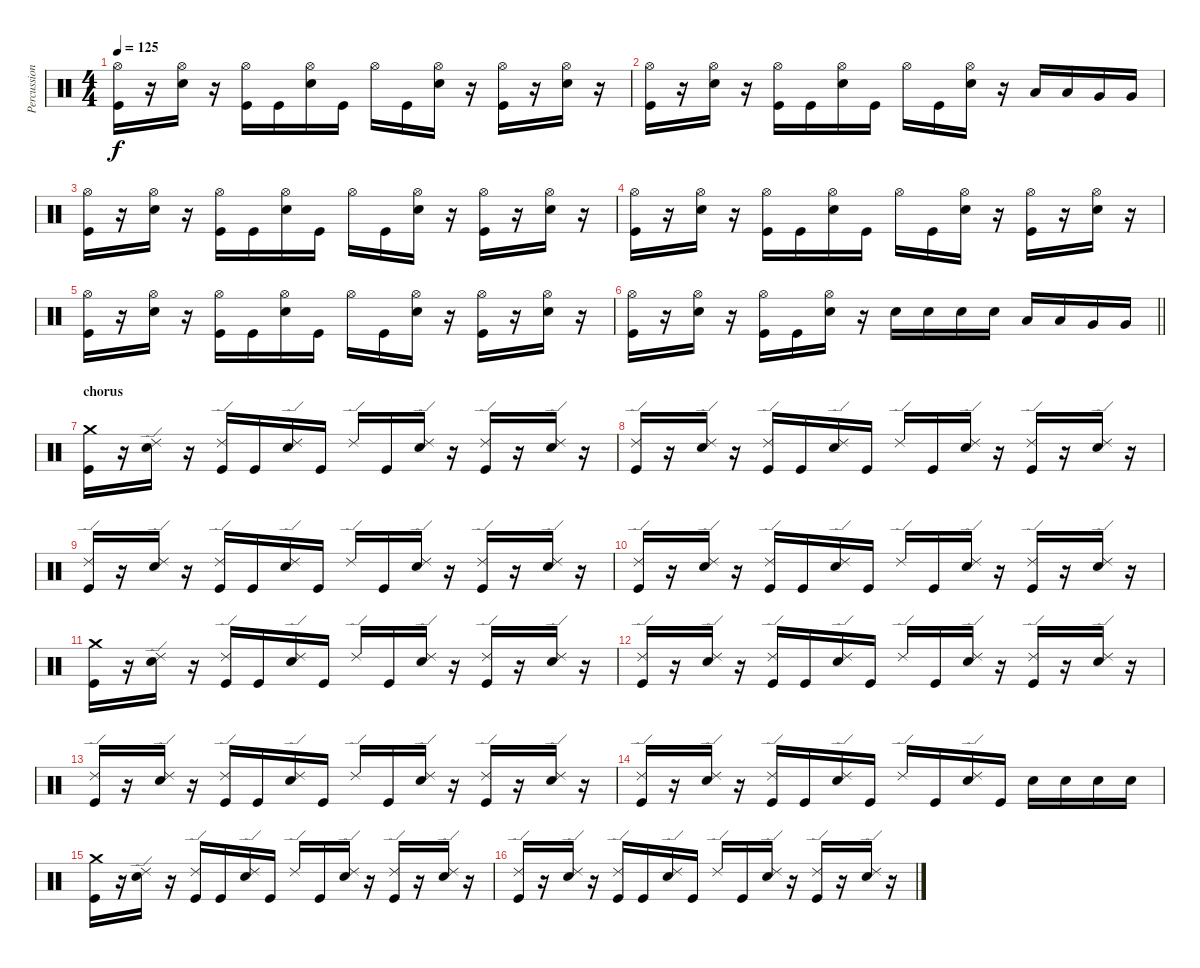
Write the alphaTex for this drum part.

\track ("Percussion" "Percussion") {instrument percussion}
\staff {score}
\articulation defaults
\ts (4 4)
\tempo 125
\clef neutral
\ks c
("Hi-Hat (open)" "Kick (hit)").16{dy f} r.16 ("Hi-Hat (open)" "Snare (hit) 2").16 r.16 ("Hi-Hat (open)" "Kick (hit)").16 "Kick (hit)".16 ("Hi-Hat (open)" "Snare (hit) 2").16 "Kick (hit)".16 "Hi-Hat (open)".16 "Kick (hit)".16 ("Hi-Hat (open)" "Snare (hit) 2").16 r.16 ("Hi-Hat (open)" "Kick (hit)").16 r.16 ("Hi-Hat (open)" "Snare (hit) 2").16 r.16 |
("Hi-Hat (open)" "Kick (hit)").16 r.16 ("Hi-Hat (open)" "Snare (hit) 2").16 r.16 ("Hi-Hat (open)" "Kick (hit)").16 "Kick (hit)".16 ("Hi-Hat (open)" "Snare (hit) 2").16 "Kick (hit)".16 "Hi-Hat (open)".16 "Kick (hit)".16 ("Hi-Hat (open)" "Snare (hit) 2").16 r.16 "Low Tom (hit)".16 "Low Tom (hit)".16 "Very Low Tom (hit)".16 "Very Low Tom (hit)".16 |
("Hi-Hat (open)" "Kick (hit)").16 r.16 ("Hi-Hat (open)" "Snare (hit) 2").16 r.16 ("Hi-Hat (open)" "Kick (hit)").16 "Kick (hit)".16 ("Hi-Hat (open)" "Snare (hit) 2").16 "Kick (hit)".16 "Hi-Hat (open)".16 "Kick (hit)".16 ("Hi-Hat (open)" "Snare (hit) 2").16 r.16 ("Hi-Hat (open)" "Kick (hit)").16 r.16 ("Hi-Hat (open)" "Snare (hit) 2").16 r.16 |
("Hi-Hat (open)" "Kick (hit)").16 r.16 ("Hi-Hat (open)" "Snare (hit) 2").16 r.16 ("Hi-Hat (open)" "Kick (hit)").16 "Kick (hit)".16 ("Hi-Hat (open)" "Snare (hit) 2").16 "Kick (hit)".16 "Hi-Hat (open)".16 "Kick (hit)".16 ("Hi-Hat (open)" "Snare (hit) 2").16 r.16 ("Hi-Hat (open)" "Kick (hit)").16 r.16 ("Hi-Hat (open)" "Snare (hit) 2").16 r.16 |
("Hi-Hat (open)" "Kick (hit)").16 r.16 ("Hi-Hat (open)" "Snare (hit) 2").16 r.16 ("Hi-Hat (open)" "Kick (hit)").16 "Kick (hit)".16 ("Hi-Hat (open)" "Snare (hit) 2").16 "Kick (hit)".16 "Hi-Hat (open)".16 "Kick (hit)".16 ("Hi-Hat (open)" "Snare (hit) 2").16 r.16 ("Hi-Hat (open)" "Kick (hit)").16 r.16 ("Hi-Hat (open)" "Snare (hit) 2").16 r.16 |
\barLineRight lightlight
("Hi-Hat (open)" "Kick (hit)").16 r.16 ("Hi-Hat (open)" "Snare (hit) 2").16 r.16 ("Hi-Hat (open)" "Kick (hit)").16 "Kick (hit)".16 ("Hi-Hat (open)" "Snare (hit) 2").16 r.16 "Snare (hit) 2".16 "Snare (hit) 2".16 "Snare (hit) 2".16 "Snare (hit) 2".16 "Low Tom (hit)".16 "Low Tom (hit)".16 "Very Low Tom (hit)".16 "Very Low Tom (hit)".16 |
\section ("" "chorus")
("Crash medium (hit)" "Kick (hit)").16 r.16 ("Ride (edge) 2" "Snare (hit) 2").16 r.16 ("Ride (edge) 2" "Kick (hit)").16 "Kick (hit)".16 ("Ride (edge) 2" "Snare (hit) 2").16 "Kick (hit)".16 "Ride (edge) 2".16 "Kick (hit)".16 ("Ride (edge) 2" "Snare (hit) 2").16 r.16 ("Ride (edge) 2" "Kick (hit)").16 r.16 ("Ride (edge) 2" "Snare (hit) 2").16 r.16 |
("Ride (edge) 2" "Kick (hit)").16 r.16 ("Ride (edge) 2" "Snare (hit) 2").16 r.16 ("Ride (edge) 2" "Kick (hit)").16 "Kick (hit)".16 ("Ride (edge) 2" "Snare (hit) 2").16 "Kick (hit)".16 "Ride (edge) 2".16 "Kick (hit)".16 ("Ride (edge) 2" "Snare (hit) 2").16 r.16 ("Ride (edge) 2" "Kick (hit)").16 r.16 ("Ride (edge) 2" "Snare (hit) 2").16 r.16 |
("Ride (edge) 2" "Kick (hit)").16 r.16 ("Ride (edge) 2" "Snare (hit) 2").16 r.16 ("Ride (edge) 2" "Kick (hit)").16 "Kick (hit)".16 ("Ride (edge) 2" "Snare (hit) 2").16 "Kick (hit)".16 "Ride (edge) 2".16 "Kick (hit)".16 ("Ride (edge) 2" "Snare (hit) 2").16 r.16 ("Ride (edge) 2" "Kick (hit)").16 r.16 ("Ride (edge) 2" "Snare (hit) 2").16 r.16 |
("Ride (edge) 2" "Kick (hit)").16 r.16 ("Ride (edge) 2" "Snare (hit) 2").16 r.16 ("Ride (edge) 2" "Kick (hit)").16 "Kick (hit)".16 ("Ride (edge) 2" "Snare (hit) 2").16 "Kick (hit)".16 "Ride (edge) 2".16 "Kick (hit)".16 ("Ride (edge) 2" "Snare (hit) 2").16 r.16 ("Ride (edge) 2" "Kick (hit)").16 r.16 ("Ride (edge) 2" "Snare (hit) 2").16 r.16 |
("Crash medium (hit)" "Kick (hit)").16 r.16 ("Ride (edge) 2" "Snare (hit) 2").16 r.16 ("Ride (edge) 2" "Kick (hit)").16 "Kick (hit)".16 ("Ride (edge) 2" "Snare (hit) 2").16 "Kick (hit)".16 "Ride (edge) 2".16 "Kick (hit)".16 ("Ride (edge) 2" "Snare (hit) 2").16 r.16 ("Ride (edge) 2" "Kick (hit)").16 r.16 ("Ride (edge) 2" "Snare (hit) 2").16 r.16 |
("Ride (edge) 2" "Kick (hit)").16 r.16 ("Ride (edge) 2" "Snare (hit) 2").16 r.16 ("Ride (edge) 2" "Kick (hit)").16 "Kick (hit)".16 ("Ride (edge) 2" "Snare (hit) 2").16 "Kick (hit)".16 "Ride (edge) 2".16 "Kick (hit)".16 ("Ride (edge) 2" "Snare (hit) 2").16 r.16 ("Ride (edge) 2" "Kick (hit)").16 r.16 ("Ride (edge) 2" "Snare (hit) 2").16 r.16 |
("Ride (edge) 2" "Kick (hit)").16 r.16 ("Ride (edge) 2" "Snare (hit) 2").16 r.16 ("Ride (edge) 2" "Kick (hit)").16 "Kick (hit)".16 ("Ride (edge) 2" "Snare (hit) 2").16 "Kick (hit)".16 "Ride (edge) 2".16 "Kick (hit)".16 ("Ride (edge) 2" "Snare (hit) 2").16 r.16 ("Ride (edge) 2" "Kick (hit)").16 r.16 ("Ride (edge) 2" "Snare (hit) 2").16 r.16 |
("Ride (edge) 2" "Kick (hit)").16 r.16 ("Ride (edge) 2" "Snare (hit) 2").16 r.16 ("Ride (edge) 2" "Kick (hit)").16 "Kick (hit)".16 ("Ride (edge) 2" "Snare (hit) 2").16 "Kick (hit)".16 "Ride (edge) 2".16 "Kick (hit)".16 ("Ride (edge) 2" "Snare (hit) 2").16 "Kick (hit)".16 "Snare (hit) 2".16 "Snare (hit) 2".16 "Snare (hit) 2".16 "Snare (hit) 2".16 |
("Crash medium (hit)" "Kick (hit)").16 r.16 ("Ride (edge) 2" "Snare (hit) 2").16 r.16 ("Ride (edge) 2" "Kick (hit)").16 "Kick (hit)".16 ("Ride (edge) 2" "Snare (hit) 2").16 "Kick (hit)".16 "Ride (edge) 2".16 "Kick (hit)".16 ("Ride (edge) 2" "Snare (hit) 2").16 r.16 ("Ride (edge) 2" "Kick (hit)").16 r.16 ("Ride (edge) 2" "Snare (hit) 2").16 r.16 |
("Ride (edge) 2" "Kick (hit)").16 r.16 ("Ride (edge) 2" "Snare (hit) 2").16 r.16 ("Ride (edge) 2" "Kick (hit)").16 "Kick (hit)".16 ("Ride (edge) 2" "Snare (hit) 2").16 "Kick (hit)".16 "Ride (edge) 2".16 "Kick (hit)".16 ("Ride (edge) 2" "Snare (hit) 2").16 r.16 ("Ride (edge) 2" "Kick (hit)").16 r.16 ("Ride (edge) 2" "Snare (hit) 2").16 r.16
